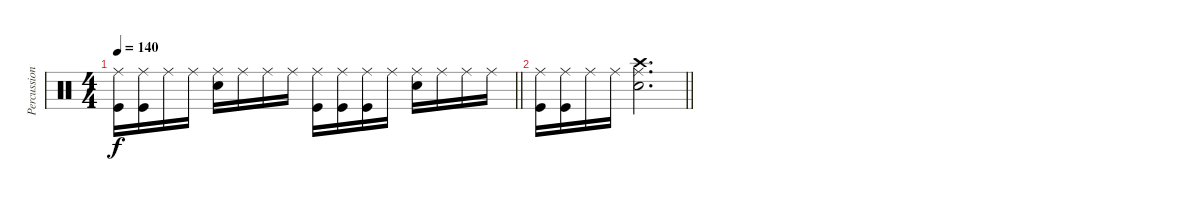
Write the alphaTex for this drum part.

\track ("Percussion" "Percussion") {instrument percussion}
\staff {score}
\articulation defaults
\ts (4 4)
\tempo 140
\clef neutral
\barLineRight lightlight
\ks c
("Ride (middle)" "Kick (hit)").16{dy f} ("Ride (middle)" "Kick (hit)").16 "Ride (middle)".16 "Ride (middle)".16 ("Ride (middle)" "Electric Snare (hit)").16 "Ride (middle)".16 "Ride (middle)".16 "Ride (middle)".16 ("Ride (middle)" "Kick (hit)").16 ("Ride (middle)" "Kick (hit)").16 ("Ride (middle)" "Kick (hit)").16 "Ride (middle)".16 ("Ride (middle)" "Electric Snare (hit)").16 "Ride (middle)".16 "Ride (middle)".16 "Ride (middle)".16 |
\barLineRight lightlight
("Ride (middle)" "Kick (hit)").16 ("Ride (middle)" "Kick (hit)").16 "Ride (middle)".16 "Ride (middle)".16 ("Crash high (hit)" "Ride (middle)" "Electric Snare (hit)").2{d}
